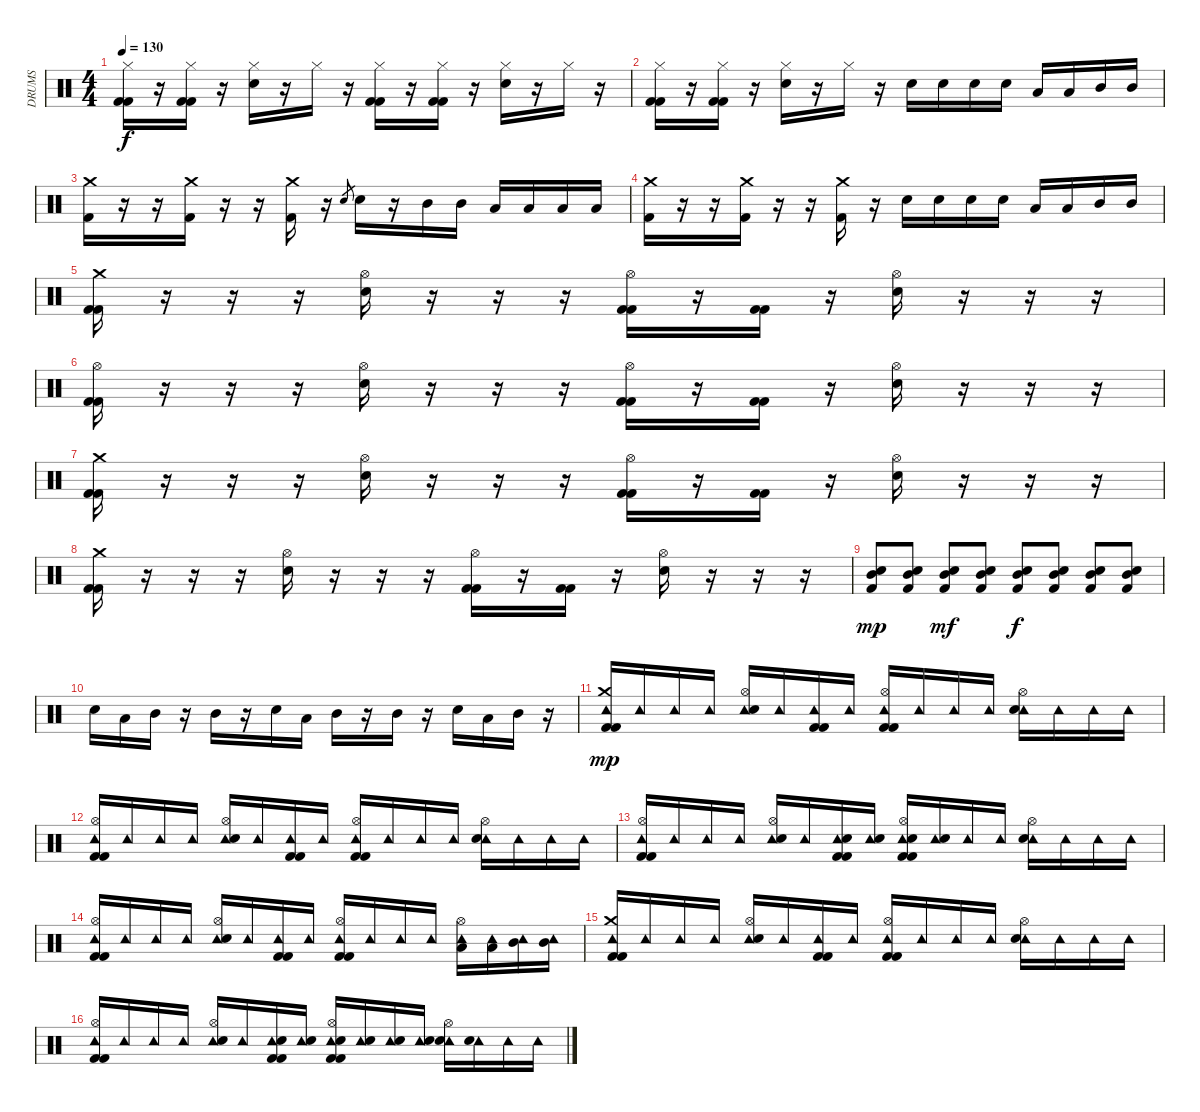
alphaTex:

\track ("DRUMS" "DRUMS") {instrument percussion}
\staff {score}
\articulation defaults
\ts (4 4)
\tempo 130
\clef neutral
\ks c
("Hi-Hat (closed)" "Kick (hit) 2" "Kick (hit) 2").16{dy f} r.16 ("Hi-Hat (closed)" "Kick (hit) 2" "Kick (hit) 2").16 r.16 ("Hi-Hat (closed)" "Snare (hit) 2").16 r.16 "Hi-Hat (closed)".16 r.16 ("Hi-Hat (closed)" "Kick (hit) 2" "Kick (hit) 2").16 r.16 ("Hi-Hat (closed)" "Kick (hit) 2" "Kick (hit) 2").16 r.16 ("Hi-Hat (closed)" "Snare (hit) 2").16 r.16 "Hi-Hat (closed)".16 r.16 |
("Hi-Hat (closed)" "Kick (hit) 2" "Kick (hit) 2").16 r.16 ("Hi-Hat (closed)" "Kick (hit) 2" "Kick (hit) 2").16 r.16 ("Hi-Hat (closed)" "Snare (hit) 2").16 r.16 "Hi-Hat (closed)".16 r.16 "Electric Snare (hit)".16 "Electric Snare (hit)".16 "Electric Snare (hit)".16 "Electric Snare (hit)".16 "Low Tom (hit)".16 "Low Tom (hit)".16 "Mid Tom (hit)".16 "Mid Tom (hit)".16 |
("Crash medium (hit)" "Kick (hit) 2").16 r.16 r.16 ("Crash medium (hit)" "Kick (hit) 2").16 r.16 r.16 ("Crash medium (hit)" "Kick (hit) 2").16 r.16 "Electric Snare (hit)".8{gr} "Electric Snare (hit)".16 r.16 "Mid Tom (hit)".16 "Mid Tom (hit)".16 "Low Tom (hit)".16 "Low Tom (hit)".16 "Low Tom (hit)".16 "Low Tom (hit)".16 |
("Crash medium (hit)" "Kick (hit) 2").16 r.16 r.16 ("Crash medium (hit)" "Kick (hit) 2").16 r.16 r.16 ("Crash medium (hit)" "Kick (hit) 2").16 r.16 "Electric Snare (hit)".16 "Electric Snare (hit)".16 "Electric Snare (hit)".16 "Electric Snare (hit)".16 "Low Tom (hit)".16 "Low Tom (hit)".16 "Mid Tom (hit)".16 "Mid Tom (hit)".16 |
("Crash medium (hit)" "Kick (hit) 2" "Kick (hit) 2").16 r.16 r.16 r.16 ("Hi-Hat (open)" "Snare (hit) 2").16 r.16 r.16 r.16 ("Hi-Hat (open)" "Kick (hit) 2" "Kick (hit) 2").16 r.16 ("Kick (hit) 2" "Kick (hit) 2").16 r.16 ("Hi-Hat (open)" "Snare (hit) 2").16 r.16 r.16 r.16 |
("Hi-Hat (open)" "Kick (hit) 2" "Kick (hit) 2").16 r.16 r.16 r.16 ("Hi-Hat (open)" "Snare (hit) 2").16 r.16 r.16 r.16 ("Hi-Hat (open)" "Kick (hit) 2" "Kick (hit) 2").16 r.16 ("Kick (hit) 2" "Kick (hit) 2").16 r.16 ("Hi-Hat (open)" "Snare (hit) 2").16 r.16 r.16 r.16 |
("Crash medium (hit)" "Kick (hit) 2" "Kick (hit) 2").16 r.16 r.16 r.16 ("Hi-Hat (open)" "Snare (hit) 2").16 r.16 r.16 r.16 ("Hi-Hat (open)" "Kick (hit) 2" "Kick (hit) 2").16 r.16 ("Kick (hit) 2" "Kick (hit) 2").16 r.16 ("Hi-Hat (open)" "Snare (hit) 2").16 r.16 r.16 r.16 |
("Crash medium (hit)" "Kick (hit) 2" "Kick (hit) 2").16 r.16 r.16 r.16 ("Hi-Hat (open)" "Snare (hit) 2").16 r.16 r.16 r.16 ("Hi-Hat (open)" "Kick (hit) 2" "Kick (hit) 2").16 r.16 ("Kick (hit) 2" "Kick (hit) 2").16 r.16 ("Hi-Hat (open)" "Snare (hit) 2").16 r.16 r.16 r.16 |
("Snare (hit) 2" "Mid Tom (hit)" "Kick (hit) 2").8{dy mp} ("Snare (hit) 2" "Mid Tom (hit)" "Kick (hit) 2").8 ("Snare (hit) 2" "Mid Tom (hit)" "Kick (hit) 2").8{dy mf} ("Snare (hit) 2" "Mid Tom (hit)" "Kick (hit) 2").8 ("Snare (hit) 2" "Mid Tom (hit)" "Kick (hit) 2").8{dy f} ("Snare (hit) 2" "Mid Tom (hit)" "Kick (hit) 2").8 ("Snare (hit) 2" "Mid Tom (hit)" "Kick (hit) 2").8 ("Snare (hit) 2" "Mid Tom (hit)" "Kick (hit) 2").8 |
"Electric Snare (hit)".16 "Low Tom (hit)".16 "Mid Tom (hit)".16 r.16 "Mid Tom (hit)".16 r.16 "Electric Snare (hit)".16 "Low Tom (hit)".16 "Mid Tom (hit)".16 r.16 "Mid Tom (hit)".16 r.16 "Electric Snare (hit)".16 "Low Tom (hit)".16 "Mid Tom (hit)".16 r.16 |
("Crash medium (hit)" "Tambourine (hit)" "Kick (hit) 2" "Kick (hit) 2").16{dy mp} "Tambourine (hit)".16 "Tambourine (hit)".16 "Tambourine (hit)".16 ("Hi-Hat (open)" "Tambourine (hit)" "Snare (hit) 2").16 "Tambourine (hit)".16 ("Tambourine (hit)" "Kick (hit) 2" "Kick (hit) 2").16 "Tambourine (hit)".16 ("Hi-Hat (open)" "Tambourine (hit)" "Kick (hit) 2" "Kick (hit) 2").16 "Tambourine (hit)".16 "Tambourine (hit)".16 "Tambourine (hit)".16 ("Hi-Hat (open)" "Tambourine (hit)" "Snare (hit) 2").16 "Tambourine (hit)".16 "Tambourine (hit)".16 "Tambourine (hit)".16 |
("Hi-Hat (open)" "Tambourine (hit)" "Kick (hit) 2" "Kick (hit) 2").16 "Tambourine (hit)".16 "Tambourine (hit)".16 "Tambourine (hit)".16 ("Hi-Hat (open)" "Tambourine (hit)" "Snare (hit) 2").16 "Tambourine (hit)".16 ("Tambourine (hit)" "Kick (hit) 2" "Kick (hit) 2").16 "Tambourine (hit)".16 ("Hi-Hat (open)" "Tambourine (hit)" "Kick (hit) 2" "Kick (hit) 2").16 "Tambourine (hit)".16 "Tambourine (hit)".16 "Tambourine (hit)".16 ("Hi-Hat (open)" "Tambourine (hit)" "Snare (hit) 2").16 "Tambourine (hit)".16 "Tambourine (hit)".16 "Tambourine (hit)".16 |
("Hi-Hat (open)" "Tambourine (hit)" "Kick (hit) 2" "Kick (hit) 2").16 "Tambourine (hit)".16 "Tambourine (hit)".16 "Tambourine (hit)".16 ("Hi-Hat (open)" "Tambourine (hit)" "Snare (hit) 2").16 "Tambourine (hit)".16 ("Tambourine (hit)" "Electric Snare (hit)" "Kick (hit) 2" "Kick (hit) 2").16 ("Tambourine (hit)" "Electric Snare (hit)").16 ("Hi-Hat (open)" "Tambourine (hit)" "Electric Snare (hit)" "Kick (hit) 2" "Kick (hit) 2").16 ("Tambourine (hit)" "Snare (hit) 2").16 "Tambourine (hit)".16 "Tambourine (hit)".16 ("Hi-Hat (open)" "Tambourine (hit)" "Snare (hit) 2").16 "Tambourine (hit)".16 "Tambourine (hit)".16 "Tambourine (hit)".16 |
("Hi-Hat (open)" "Tambourine (hit)" "Kick (hit) 2" "Kick (hit) 2").16 "Tambourine (hit)".16 "Tambourine (hit)".16 "Tambourine (hit)".16 ("Hi-Hat (open)" "Tambourine (hit)" "Snare (hit) 2").16 "Tambourine (hit)".16 ("Tambourine (hit)" "Kick (hit) 2" "Kick (hit) 2").16 "Tambourine (hit)".16 ("Hi-Hat (open)" "Tambourine (hit)" "Kick (hit) 2" "Kick (hit) 2").16 "Tambourine (hit)".16 "Tambourine (hit)".16 "Tambourine (hit)".16 ("Hi-Hat (open)" "Tambourine (hit)" "Low Tom (hit)").16 ("Tambourine (hit)" "Low Tom (hit)").16 ("Tambourine (hit)" "Mid Tom (hit)").16 ("Tambourine (hit)" "Mid Tom (hit)").16 |
("Crash medium (hit)" "Tambourine (hit)" "Kick (hit) 2" "Kick (hit) 2").16 "Tambourine (hit)".16 "Tambourine (hit)".16 "Tambourine (hit)".16 ("Hi-Hat (open)" "Tambourine (hit)" "Snare (hit) 2").16 "Tambourine (hit)".16 ("Tambourine (hit)" "Kick (hit) 2" "Kick (hit) 2").16 "Tambourine (hit)".16 ("Hi-Hat (open)" "Tambourine (hit)" "Kick (hit) 2" "Kick (hit) 2").16 "Tambourine (hit)".16 "Tambourine (hit)".16 "Tambourine (hit)".16 ("Hi-Hat (open)" "Tambourine (hit)" "Snare (hit) 2").16 "Tambourine (hit)".16 "Tambourine (hit)".16 "Tambourine (hit)".16 |
("Hi-Hat (open)" "Tambourine (hit)" "Kick (hit) 2" "Kick (hit) 2").16 "Tambourine (hit)".16 "Tambourine (hit)".16 "Tambourine (hit)".16 ("Hi-Hat (open)" "Tambourine (hit)" "Snare (hit) 2").16 "Tambourine (hit)".16 ("Tambourine (hit)" "Electric Snare (hit)" "Kick (hit) 2" "Kick (hit) 2").16 ("Tambourine (hit)" "Electric Snare (hit)").16 ("Hi-Hat (open)" "Tambourine (hit)" "Electric Snare (hit)" "Kick (hit) 2" "Kick (hit) 2").16 ("Tambourine (hit)" "Snare (hit) 2").16 ("Tambourine (hit)" "Electric Snare (hit)").16 ("Tambourine (hit)" "Electric Snare (hit)").16 ("Hi-Hat (open)" "Tambourine (hit)" "Electric Snare (hit)").16 ("Tambourine (hit)" "Snare (hit) 2").16 "Tambourine (hit)".16 "Tambourine (hit)".16
